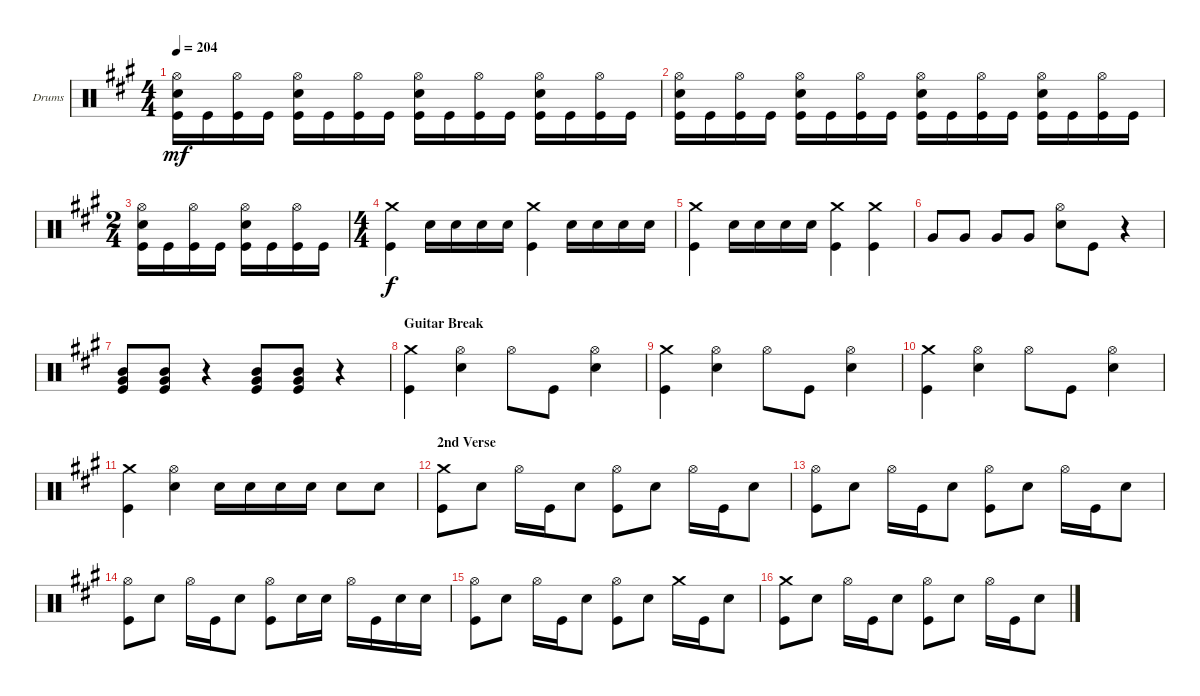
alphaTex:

\bracketExtendMode groupsimilarinstruments
\firstSystemTrackNameOrientation horizontal
\otherSystemsTrackNameOrientation horizontal
\track ("Drumkit" "Drums") {instrument percussion}
\staff {score}
\articulation defaults
\ts (4 4)
\tempo 204
\clef neutral
\ks a
("Kick (hit)" "Snare (hit) 2" "Hi-Hat (open)").16{dy mf} "Kick (hit)".16 ("Kick (hit)" "Hi-Hat (open)").16 "Kick (hit)".16 ("Kick (hit)" "Snare (hit) 2" "Hi-Hat (open)").16 "Kick (hit)".16 ("Kick (hit)" "Hi-Hat (open)").16 "Kick (hit)".16 ("Kick (hit)" "Snare (hit) 2" "Hi-Hat (open)").16 "Kick (hit)".16 ("Kick (hit)" "Hi-Hat (open)").16 "Kick (hit)".16 ("Kick (hit)" "Snare (hit) 2" "Hi-Hat (open)").16 "Kick (hit)".16 ("Kick (hit)" "Hi-Hat (open)").16 "Kick (hit)".16 |
("Kick (hit)" "Snare (hit) 2" "Hi-Hat (open)").16 "Kick (hit)".16 ("Kick (hit)" "Hi-Hat (open)").16 "Kick (hit)".16 ("Kick (hit)" "Snare (hit) 2" "Hi-Hat (open)").16 "Kick (hit)".16 ("Kick (hit)" "Hi-Hat (open)").16 "Kick (hit)".16 ("Kick (hit)" "Snare (hit) 2" "Hi-Hat (open)").16 "Kick (hit)".16 ("Kick (hit)" "Hi-Hat (open)").16 "Kick (hit)".16 ("Kick (hit)" "Snare (hit) 2" "Hi-Hat (open)").16 "Kick (hit)".16 ("Kick (hit)" "Hi-Hat (open)").16 "Kick (hit)".16 |
\ts (2 4)
("Kick (hit)" "Snare (hit) 2" "Hi-Hat (open)").16 "Kick (hit)".16 ("Kick (hit)" "Hi-Hat (open)").16 "Kick (hit)".16 ("Kick (hit)" "Snare (hit) 2" "Hi-Hat (open)").16 "Kick (hit)".16 ("Kick (hit)" "Hi-Hat (open)").16 "Kick (hit)".16 |
\ts (4 4)
("Crash medium (hit)" "Kick (hit)").4{dy f} "Snare (hit) 2".16 "Snare (hit) 2".16 "Snare (hit) 2".16 "Snare (hit) 2".16 ("Crash medium (hit)" "Kick (hit)").4 "Snare (hit) 2".16 "Snare (hit) 2".16 "Snare (hit) 2".16 "Snare (hit) 2".16 |
("Crash medium (hit)" "Kick (hit)").4 "Snare (hit) 2".16 "Snare (hit) 2".16 "Snare (hit) 2".16 "Snare (hit) 2".16 ("Crash medium (hit)" "Kick (hit)").4 ("Crash medium (hit)" "Kick (hit)").4 |
"Very Low Tom (hit)".8 "Very Low Tom (hit)".8 "Very Low Tom (hit)".8 "Very Low Tom (hit)".8 ("Hi-Hat (open)" "Snare (hit) 2").8 "Kick (hit)".8 r.4 |
("Mid Tom (hit)" "Very Low Tom (hit)" "Kick (hit)").8 ("Mid Tom (hit)" "Very Low Tom (hit)" "Kick (hit)").8 r.4 ("Mid Tom (hit)" "Very Low Tom (hit)" "Kick (hit)").8 ("Mid Tom (hit)" "Very Low Tom (hit)" "Kick (hit)").8 r.4 |
\section ("" "Guitar Break")
("Crash medium (hit)" "Kick (hit)").4 ("Hi-Hat (open)" "Snare (hit) 2").4 "Hi-Hat (open)".8 "Kick (hit)".8 ("Hi-Hat (open)" "Snare (hit) 2").4 |
("Crash medium (hit)" "Kick (hit)").4 ("Hi-Hat (open)" "Snare (hit) 2").4 "Hi-Hat (open)".8 "Kick (hit)".8 ("Hi-Hat (open)" "Snare (hit) 2").4 |
("Crash medium (hit)" "Kick (hit)").4 ("Hi-Hat (open)" "Snare (hit) 2").4 "Hi-Hat (open)".8 "Kick (hit)".8 ("Hi-Hat (open)" "Snare (hit) 2").4 |
("Crash medium (hit)" "Kick (hit)").4 ("Hi-Hat (open)" "Snare (hit) 2").4 "Snare (hit) 2".16 "Snare (hit) 2".16 "Snare (hit) 2".16 "Snare (hit) 2".16 "Snare (hit) 2".8 "Snare (hit) 2".8 |
\section ("" "2nd Verse ")
("Crash medium (hit)" "Kick (hit)").8 "Snare (hit) 2".8 "Hi-Hat (open)".16 "Kick (hit)".16 "Snare (hit) 2".8 ("Hi-Hat (open)" "Kick (hit)").8 "Snare (hit) 2".8 "Hi-Hat (open)".16 "Kick (hit)".16 "Snare (hit) 2".8 |
("Hi-Hat (open)" "Kick (hit)").8 "Snare (hit) 2".8 "Hi-Hat (open)".16 "Kick (hit)".16 "Snare (hit) 2".8 ("Hi-Hat (open)" "Kick (hit)").8 "Snare (hit) 2".8 "Hi-Hat (open)".16 "Kick (hit)".16 "Snare (hit) 2".8 |
("Hi-Hat (open)" "Kick (hit)").8 "Snare (hit) 2".8 "Hi-Hat (open)".16 "Kick (hit)".16 "Snare (hit) 2".8 ("Hi-Hat (open)" "Kick (hit)").8 "Snare (hit) 2".16 "Snare (hit) 2".16 "Hi-Hat (open)".16 "Kick (hit)".16 "Snare (hit) 2".16 "Snare (hit) 2".16 |
("Hi-Hat (open)" "Kick (hit)").8 "Snare (hit) 2".8 "Hi-Hat (open)".16 "Kick (hit)".16 "Snare (hit) 2".8 ("Hi-Hat (open)" "Kick (hit)").8 "Snare (hit) 2".8 "Crash medium (hit)".16 "Kick (hit)".16 "Snare (hit) 2".8 |
("Crash medium (hit)" "Kick (hit)").8 "Snare (hit) 2".8 "Hi-Hat (open)".16 "Kick (hit)".16 "Snare (hit) 2".8 ("Hi-Hat (open)" "Kick (hit)").8 "Snare (hit) 2".8 "Hi-Hat (open)".16 "Kick (hit)".16 "Snare (hit) 2".8
